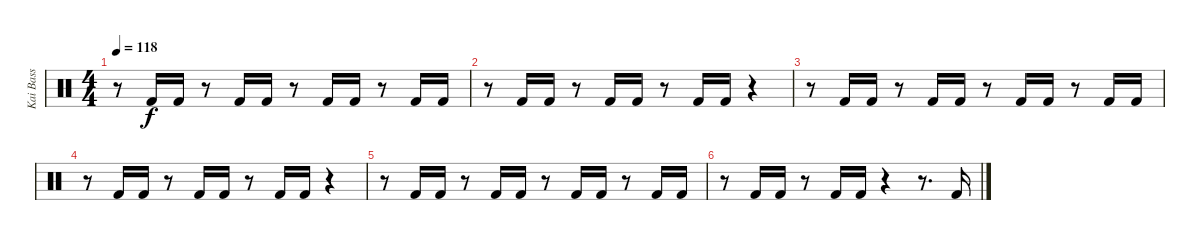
\track ("Kai Bass" "Kai Bass") {instrument percussion}
\staff {score}
\articulation defaults
\ts (4 4)
\tempo 118
\clef neutral
\ks c
r.8{dy f} "Kick (hit) 2".16 "Kick (hit) 2".16 r.8 "Kick (hit) 2".16 "Kick (hit) 2".16 r.8 "Kick (hit) 2".16 "Kick (hit) 2".16 r.8 "Kick (hit) 2".16 "Kick (hit) 2".16 |
r.8 "Kick (hit) 2".16 "Kick (hit) 2".16 r.8 "Kick (hit) 2".16 "Kick (hit) 2".16 r.8 "Kick (hit) 2".16 "Kick (hit) 2".16 r.4 |
r.8 "Kick (hit) 2".16 "Kick (hit) 2".16 r.8 "Kick (hit) 2".16 "Kick (hit) 2".16 r.8 "Kick (hit) 2".16 "Kick (hit) 2".16 r.8 "Kick (hit) 2".16 "Kick (hit) 2".16 |
r.8 "Kick (hit) 2".16 "Kick (hit) 2".16 r.8 "Kick (hit) 2".16 "Kick (hit) 2".16 r.8 "Kick (hit) 2".16 "Kick (hit) 2".16 r.4 |
r.8 "Kick (hit) 2".16 "Kick (hit) 2".16 r.8 "Kick (hit) 2".16 "Kick (hit) 2".16 r.8 "Kick (hit) 2".16 "Kick (hit) 2".16 r.8 "Kick (hit) 2".16 "Kick (hit) 2".16 |
r.8 "Kick (hit) 2".16 "Kick (hit) 2".16 r.8 "Kick (hit) 2".16 "Kick (hit) 2".16 r.4 r.8{d} "Kick (hit) 2".16
